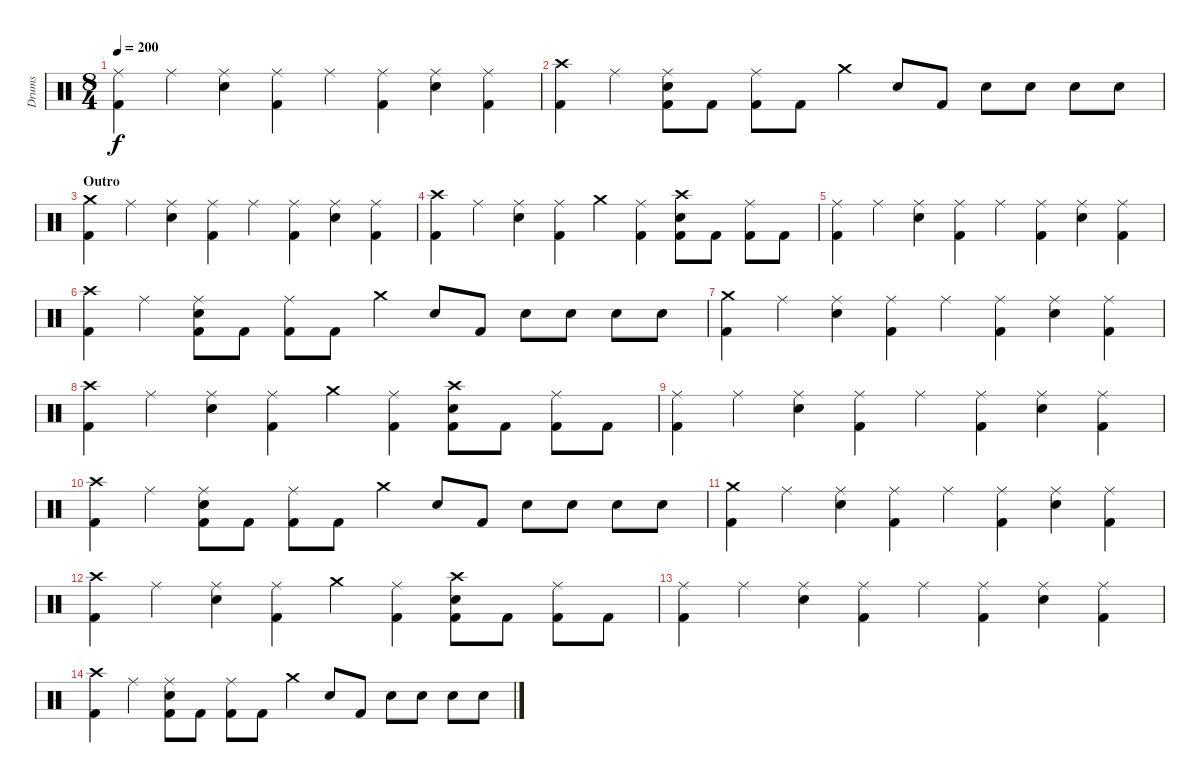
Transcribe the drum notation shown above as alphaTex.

\track ("Drums" "Drums") {instrument percussion}
\staff {score}
\articulation defaults
\ts (8 4)
\tempo 200
\clef neutral
\ks c
("Ride (middle)" "Kick (hit) 2").4{dy f} "Ride (middle)".4 ("Ride (middle)" "Electric Snare (hit)").4 ("Ride (middle)" "Kick (hit) 2").4 "Ride (middle)".4 ("Ride (middle)" "Kick (hit) 2").4 ("Ride (middle)" "Electric Snare (hit)").4 ("Ride (middle)" "Kick (hit) 2").4 |
("Crash high (hit)" "Kick (hit) 2").4 "Ride (middle)".4 ("Ride (middle)" "Electric Snare (hit)" "Kick (hit) 2").8 "Kick (hit) 2".8 ("Ride (middle)" "Kick (hit) 2").8 "Kick (hit) 2".8 "Crash medium (hit)".4 "Electric Snare (hit)".8 "Kick (hit) 2".8 "Electric Snare (hit)".8 "Electric Snare (hit)".8 "Electric Snare (hit)".8 "Electric Snare (hit)".8 |
\section ("" "Outro")
("Crash medium (hit)" "Kick (hit) 2").4 "Ride (middle)".4 ("Ride (middle)" "Electric Snare (hit)").4 ("Ride (middle)" "Kick (hit) 2").4 "Ride (middle)".4 ("Ride (middle)" "Kick (hit) 2").4 ("Ride (middle)" "Electric Snare (hit)").4 ("Ride (middle)" "Kick (hit) 2").4 |
("Crash high (hit)" "Kick (hit) 2").4 "Ride (middle)".4 ("Ride (middle)" "Electric Snare (hit)").4 ("Ride (middle)" "Kick (hit) 2").4 "Crash medium (hit)".4 ("Ride (middle)" "Kick (hit) 2").4 ("Crash high (hit)" "Electric Snare (hit)" "Kick (hit) 2").8 "Kick (hit) 2".8 ("Ride (middle)" "Kick (hit) 2").8 "Kick (hit) 2".8 |
("Ride (middle)" "Kick (hit) 2").4 "Ride (middle)".4 ("Ride (middle)" "Electric Snare (hit)").4 ("Ride (middle)" "Kick (hit) 2").4 "Ride (middle)".4 ("Ride (middle)" "Kick (hit) 2").4 ("Ride (middle)" "Electric Snare (hit)").4 ("Ride (middle)" "Kick (hit) 2").4 |
("Crash high (hit)" "Kick (hit) 2").4 "Ride (middle)".4 ("Ride (middle)" "Electric Snare (hit)" "Kick (hit) 2").8 "Kick (hit) 2".8 ("Ride (middle)" "Kick (hit) 2").8 "Kick (hit) 2".8 "Crash medium (hit)".4 "Electric Snare (hit)".8 "Kick (hit) 2".8 "Electric Snare (hit)".8 "Electric Snare (hit)".8 "Electric Snare (hit)".8 "Electric Snare (hit)".8 |
("Crash medium (hit)" "Kick (hit) 2").4 "Ride (middle)".4 ("Ride (middle)" "Electric Snare (hit)").4 ("Ride (middle)" "Kick (hit) 2").4 "Ride (middle)".4 ("Ride (middle)" "Kick (hit) 2").4 ("Ride (middle)" "Electric Snare (hit)").4 ("Ride (middle)" "Kick (hit) 2").4 |
("Crash high (hit)" "Kick (hit) 2").4 "Ride (middle)".4 ("Ride (middle)" "Electric Snare (hit)").4 ("Ride (middle)" "Kick (hit) 2").4 "Crash medium (hit)".4 ("Ride (middle)" "Kick (hit) 2").4 ("Crash high (hit)" "Electric Snare (hit)" "Kick (hit) 2").8 "Kick (hit) 2".8 ("Ride (middle)" "Kick (hit) 2").8 "Kick (hit) 2".8 |
("Ride (middle)" "Kick (hit) 2").4 "Ride (middle)".4 ("Ride (middle)" "Electric Snare (hit)").4 ("Ride (middle)" "Kick (hit) 2").4 "Ride (middle)".4 ("Ride (middle)" "Kick (hit) 2").4 ("Ride (middle)" "Electric Snare (hit)").4 ("Ride (middle)" "Kick (hit) 2").4 |
("Crash high (hit)" "Kick (hit) 2").4 "Ride (middle)".4 ("Ride (middle)" "Electric Snare (hit)" "Kick (hit) 2").8 "Kick (hit) 2".8 ("Ride (middle)" "Kick (hit) 2").8 "Kick (hit) 2".8 "Crash medium (hit)".4 "Electric Snare (hit)".8 "Kick (hit) 2".8 "Electric Snare (hit)".8 "Electric Snare (hit)".8 "Electric Snare (hit)".8 "Electric Snare (hit)".8 |
("Crash medium (hit)" "Kick (hit) 2").4 "Ride (middle)".4 ("Ride (middle)" "Electric Snare (hit)").4 ("Ride (middle)" "Kick (hit) 2").4 "Ride (middle)".4 ("Ride (middle)" "Kick (hit) 2").4 ("Ride (middle)" "Electric Snare (hit)").4 ("Ride (middle)" "Kick (hit) 2").4 |
("Crash high (hit)" "Kick (hit) 2").4 "Ride (middle)".4 ("Ride (middle)" "Electric Snare (hit)").4 ("Ride (middle)" "Kick (hit) 2").4 "Crash medium (hit)".4 ("Ride (middle)" "Kick (hit) 2").4 ("Crash high (hit)" "Electric Snare (hit)" "Kick (hit) 2").8 "Kick (hit) 2".8 ("Ride (middle)" "Kick (hit) 2").8 "Kick (hit) 2".8 |
("Ride (middle)" "Kick (hit) 2").4 "Ride (middle)".4 ("Ride (middle)" "Electric Snare (hit)").4 ("Ride (middle)" "Kick (hit) 2").4 "Ride (middle)".4 ("Ride (middle)" "Kick (hit) 2").4 ("Ride (middle)" "Electric Snare (hit)").4 ("Ride (middle)" "Kick (hit) 2").4 |
("Crash high (hit)" "Kick (hit) 2").4 "Ride (middle)".4 ("Ride (middle)" "Electric Snare (hit)" "Kick (hit) 2").8 "Kick (hit) 2".8 ("Ride (middle)" "Kick (hit) 2").8 "Kick (hit) 2".8 "Crash medium (hit)".4 "Electric Snare (hit)".8 "Kick (hit) 2".8 "Electric Snare (hit)".8 "Electric Snare (hit)".8 "Electric Snare (hit)".8 "Electric Snare (hit)".8
